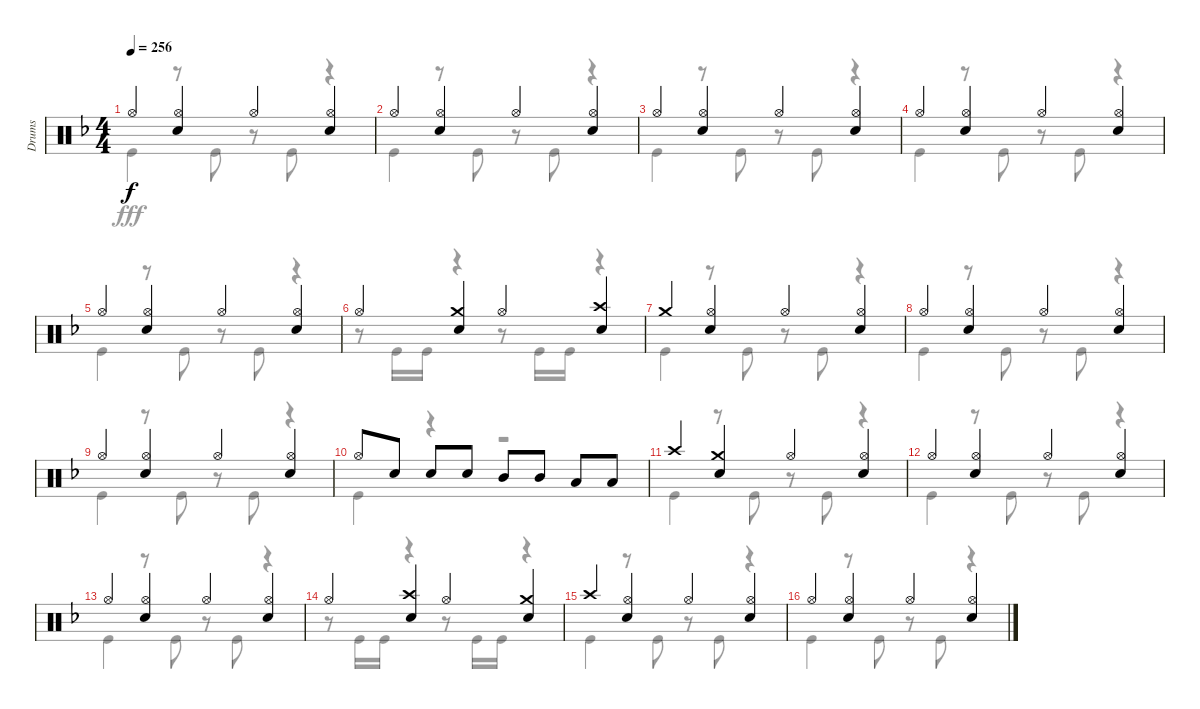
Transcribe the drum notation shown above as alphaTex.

\track ("Drums" "Drums") {instrument percussion}
\staff {score}
\articulation defaults
\voice
\ts (4 4)
\tempo 256
\clef neutral
\ks f "Hi-Hat (open)".4{dy f}
("Hi-Hat (open)" "Snare (hit) 2").4 "Hi-Hat (open)".4 ("Hi-Hat (open)" "Snare (hit) 2").4 |
"Hi-Hat (open)".4 ("Hi-Hat (open)" "Snare (hit) 2").4 "Hi-Hat (open)".4 ("Hi-Hat (open)" "Snare (hit) 2").4 |
"Hi-Hat (open)".4 ("Hi-Hat (open)" "Snare (hit) 2").4 "Hi-Hat (open)".4 ("Hi-Hat (open)" "Snare (hit) 2").4 |
"Hi-Hat (open)".4 ("Hi-Hat (open)" "Snare (hit) 2").4 "Hi-Hat (open)".4 ("Hi-Hat (open)" "Snare (hit) 2").4 |
"Hi-Hat (open)".4 ("Hi-Hat (open)" "Snare (hit) 2").4 "Hi-Hat (open)".4 ("Hi-Hat (open)" "Snare (hit) 2").4 |
"Hi-Hat (open)".4 ("Crash medium (hit)" "Snare (hit) 2").4 "Hi-Hat (open)".4 ("Crash high (hit)" "Snare (hit) 2").4 |
"Crash medium (hit)".4 ("Hi-Hat (open)" "Snare (hit) 2").4 "Hi-Hat (open)".4 ("Hi-Hat (open)" "Snare (hit) 2").4 |
"Hi-Hat (open)".4 ("Hi-Hat (open)" "Snare (hit) 2").4 "Hi-Hat (open)".4 ("Hi-Hat (open)" "Snare (hit) 2").4 |
"Hi-Hat (open)".4 ("Hi-Hat (open)" "Snare (hit) 2").4 "Hi-Hat (open)".4 ("Hi-Hat (open)" "Snare (hit) 2").4 |
"Hi-Hat (open)".8 "Snare (hit) 2".8 "Snare (hit) 2".8 "Snare (hit) 2".8 "Mid Tom (hit)".8 "Mid Tom (hit)".8 "Low Tom (hit)".8 "Low Tom (hit)".8 |
"Crash high (hit)".4 ("Crash medium (hit)" "Snare (hit) 2").4 "Hi-Hat (open)".4 ("Hi-Hat (open)" "Snare (hit) 2").4 |
"Hi-Hat (open)".4 ("Hi-Hat (open)" "Snare (hit) 2").4 "Hi-Hat (open)".4 ("Hi-Hat (open)" "Snare (hit) 2").4 |
"Hi-Hat (open)".4 ("Hi-Hat (open)" "Snare (hit) 2").4 "Hi-Hat (open)".4 ("Hi-Hat (open)" "Snare (hit) 2").4 |
"Hi-Hat (open)".4 ("Crash high (hit)" "Snare (hit) 2").4 "Hi-Hat (open)".4 ("Crash medium (hit)" "Snare (hit) 2").4 |
"Crash high (hit)".4 ("Hi-Hat (open)" "Snare (hit) 2").4 "Hi-Hat (open)".4 ("Hi-Hat (open)" "Snare (hit) 2").4 |
"Hi-Hat (open)".4 ("Hi-Hat (open)" "Snare (hit) 2").4 "Hi-Hat (open)".4 ("Hi-Hat (open)" "Snare (hit) 2").4
\voice
\clef neutral
\ottava regular
\simile none
\ks f "Kick (hit)".4{dy fff}
r.8 "Kick (hit)".8 r.8 "Kick (hit)".8 r.4 |
"Kick (hit)".4 r.8 "Kick (hit)".8 r.8 "Kick (hit)".8 r.4 |
"Kick (hit)".4 r.8 "Kick (hit)".8 r.8 "Kick (hit)".8 r.4 |
"Kick (hit)".4 r.8 "Kick (hit)".8 r.8 "Kick (hit)".8 r.4 |
"Kick (hit)".4 r.8 "Kick (hit)".8 r.8 "Kick (hit)".8 r.4 |
r.8 "Kick (hit)".16 "Kick (hit)".16 r.4 r.8 "Kick (hit)".16 "Kick (hit)".16 r.4 |
"Kick (hit)".4 r.8 "Kick (hit)".8 r.8 "Kick (hit)".8 r.4 |
"Kick (hit)".4 r.8 "Kick (hit)".8 r.8 "Kick (hit)".8 r.4 |
"Kick (hit)".4 r.8 "Kick (hit)".8 r.8 "Kick (hit)".8 r.4 |
"Kick (hit)".4 r.4 r.2 |
"Kick (hit)".4 r.8 "Kick (hit)".8 r.8 "Kick (hit)".8 r.4 |
"Kick (hit)".4 r.8 "Kick (hit)".8 r.8 "Kick (hit)".8 r.4 |
"Kick (hit)".4 r.8 "Kick (hit)".8 r.8 "Kick (hit)".8 r.4 |
r.8 "Kick (hit)".16 "Kick (hit)".16 r.4 r.8 "Kick (hit)".16 "Kick (hit)".16 r.4 |
"Kick (hit)".4 r.8 "Kick (hit)".8 r.8 "Kick (hit)".8 r.4 |
"Kick (hit)".4 r.8 "Kick (hit)".8 r.8 "Kick (hit)".8 r.4
